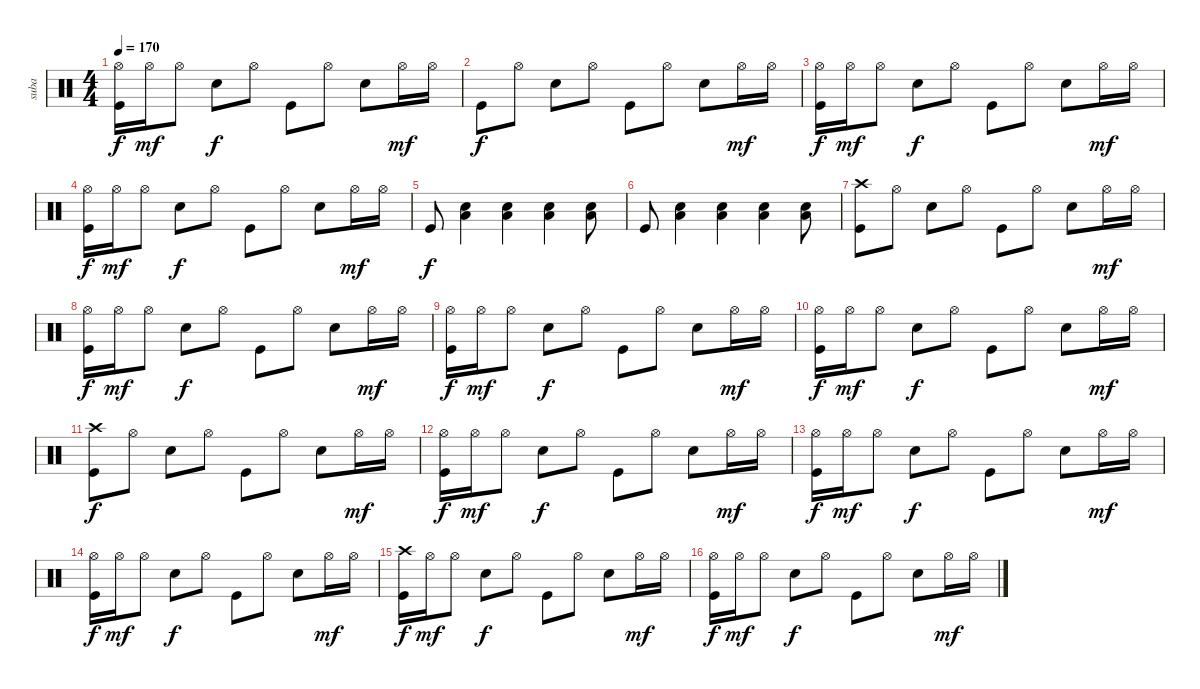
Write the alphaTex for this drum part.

\track ("suba" "suba") {instrument percussion}
\staff {score}
\articulation defaults
\ts (4 4)
\tempo 170
\clef neutral
\ks c
("Hi-Hat (open)" "Kick (hit)").16{dy f} "Hi-Hat (open)".16{dy mf} "Hi-Hat (open)".8 "Electric Snare (hit)".8{dy f} "Hi-Hat (open)".8 "Kick (hit)".8 "Hi-Hat (open)".8 "Electric Snare (hit)".8 "Hi-Hat (open)".16{dy mf} "Hi-Hat (open)".16 |
"Kick (hit)".8{dy f} "Hi-Hat (open)".8 "Electric Snare (hit)".8 "Hi-Hat (open)".8 "Kick (hit)".8 "Hi-Hat (open)".8 "Electric Snare (hit)".8 "Hi-Hat (open)".16{dy mf} "Hi-Hat (open)".16 |
("Hi-Hat (open)" "Kick (hit)").16{dy f} "Hi-Hat (open)".16{dy mf} "Hi-Hat (open)".8 "Electric Snare (hit)".8{dy f} "Hi-Hat (open)".8 "Kick (hit)".8 "Hi-Hat (open)".8 "Electric Snare (hit)".8 "Hi-Hat (open)".16{dy mf} "Hi-Hat (open)".16 |
("Hi-Hat (open)" "Kick (hit)").16{dy f} "Hi-Hat (open)".16{dy mf} "Hi-Hat (open)".8 "Electric Snare (hit)".8{dy f} "Hi-Hat (open)".8 "Kick (hit)".8 "Hi-Hat (open)".8 "Electric Snare (hit)".8 "Hi-Hat (open)".16{dy mf} "Hi-Hat (open)".16 |
"Kick (hit)".8{dy f} ("Low Floor Tom (hit)" "Electric Snare (hit)").4 ("Low Floor Tom (hit)" "Electric Snare (hit)").4 ("Low Floor Tom (hit)" "Electric Snare (hit)").4 ("Low Floor Tom (hit)" "Electric Snare (hit)").8 |
"Kick (hit)".8 ("Low Floor Tom (hit)" "Electric Snare (hit)").4 ("Low Floor Tom (hit)" "Electric Snare (hit)").4 ("Low Floor Tom (hit)" "Electric Snare (hit)").4 ("Low Floor Tom (hit)" "Electric Snare (hit)").8 |
("Crash high (hit)" "Kick (hit)").8 "Hi-Hat (open)".8 "Electric Snare (hit)".8 "Hi-Hat (open)".8 "Kick (hit)".8 "Hi-Hat (open)".8 "Electric Snare (hit)".8 "Hi-Hat (open)".16{dy mf} "Hi-Hat (open)".16 |
("Hi-Hat (open)" "Kick (hit)").16{dy f} "Hi-Hat (open)".16{dy mf} "Hi-Hat (open)".8 "Electric Snare (hit)".8{dy f} "Hi-Hat (open)".8 "Kick (hit)".8 "Hi-Hat (open)".8 "Electric Snare (hit)".8 "Hi-Hat (open)".16{dy mf} "Hi-Hat (open)".16 |
("Hi-Hat (open)" "Kick (hit)").16{dy f} "Hi-Hat (open)".16{dy mf} "Hi-Hat (open)".8 "Electric Snare (hit)".8{dy f} "Hi-Hat (open)".8 "Kick (hit)".8 "Hi-Hat (open)".8 "Electric Snare (hit)".8 "Hi-Hat (open)".16{dy mf} "Hi-Hat (open)".16 |
("Hi-Hat (open)" "Kick (hit)").16{dy f} "Hi-Hat (open)".16{dy mf} "Hi-Hat (open)".8 "Electric Snare (hit)".8{dy f} "Hi-Hat (open)".8 "Kick (hit)".8 "Hi-Hat (open)".8 "Electric Snare (hit)".8 "Hi-Hat (open)".16{dy mf} "Hi-Hat (open)".16 |
("Crash high (hit)" "Kick (hit)").8{dy f} "Hi-Hat (open)".8 "Electric Snare (hit)".8 "Hi-Hat (open)".8 "Kick (hit)".8 "Hi-Hat (open)".8 "Electric Snare (hit)".8 "Hi-Hat (open)".16{dy mf} "Hi-Hat (open)".16 |
("Hi-Hat (open)" "Kick (hit)").16{dy f} "Hi-Hat (open)".16{dy mf} "Hi-Hat (open)".8 "Electric Snare (hit)".8{dy f} "Hi-Hat (open)".8 "Kick (hit)".8 "Hi-Hat (open)".8 "Electric Snare (hit)".8 "Hi-Hat (open)".16{dy mf} "Hi-Hat (open)".16 |
("Hi-Hat (open)" "Kick (hit)").16{dy f} "Hi-Hat (open)".16{dy mf} "Hi-Hat (open)".8 "Electric Snare (hit)".8{dy f} "Hi-Hat (open)".8 "Kick (hit)".8 "Hi-Hat (open)".8 "Electric Snare (hit)".8 "Hi-Hat (open)".16{dy mf} "Hi-Hat (open)".16 |
("Hi-Hat (open)" "Kick (hit)").16{dy f} "Hi-Hat (open)".16{dy mf} "Hi-Hat (open)".8 "Electric Snare (hit)".8{dy f} "Hi-Hat (open)".8 "Kick (hit)".8 "Hi-Hat (open)".8 "Electric Snare (hit)".8 "Hi-Hat (open)".16{dy mf} "Hi-Hat (open)".16 |
("Crash high (hit)" "Kick (hit)").16{dy f} "Hi-Hat (open)".16{dy mf} "Hi-Hat (open)".8 "Electric Snare (hit)".8{dy f} "Hi-Hat (open)".8 "Kick (hit)".8 "Hi-Hat (open)".8 "Electric Snare (hit)".8 "Hi-Hat (open)".16{dy mf} "Hi-Hat (open)".16 |
("Hi-Hat (open)" "Kick (hit)").16{dy f} "Hi-Hat (open)".16{dy mf} "Hi-Hat (open)".8 "Electric Snare (hit)".8{dy f} "Hi-Hat (open)".8 "Kick (hit)".8 "Hi-Hat (open)".8 "Electric Snare (hit)".8 "Hi-Hat (open)".16{dy mf} "Hi-Hat (open)".16
